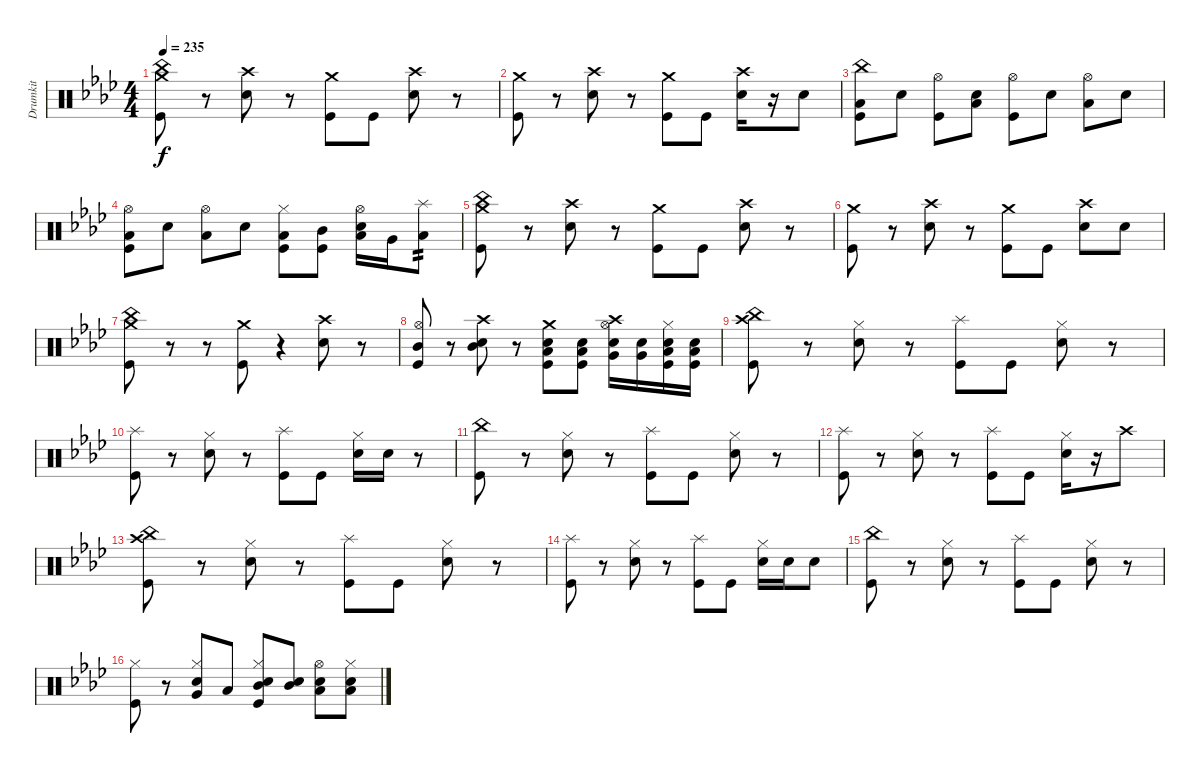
\track ("Drumkit" "Drumkit") {instrument percussion}
\staff {score}
\articulation defaults
\ts (4 4)
\tempo 235
\clef neutral
\ks ab
("Crash medium (hit)" "China (hit)" "Kick (hit)").8{dy f} r.8 ("Crash high (hit)" "Electric Snare (hit)").8 r.8 ("Crash medium (hit)" "Kick (hit)").8 "Kick (hit)".8 ("Crash high (hit)" "Electric Snare (hit)").8 r.8 |
("Crash medium (hit)" "Kick (hit)").8 r.8 ("Crash high (hit)" "Electric Snare (hit)").8 r.8 ("Crash medium (hit)" "Kick (hit)").8 "Kick (hit)".8 ("Crash high (hit)" "Electric Snare (hit)").16 r.16 "Electric Snare (hit)".8 |
("China (hit)" "Low Tom (hit)" "Kick (hit)").8 "Electric Snare (hit)".8 ("Hi-Hat (open)" "Kick (hit)").8 ("Low Tom (hit)" "Electric Snare (hit)").8 ("Hi-Hat (open)" "Kick (hit)").8 "Electric Snare (hit)".8 ("Hi-Hat (open)" "Low Tom (hit)").8 "Electric Snare (hit)".8 |
("Hi-Hat (open)" "Low Tom (hit)" "Kick (hit)").8 "Electric Snare (hit)".8 ("Hi-Hat (open)" "Low Tom (hit)").8 "Electric Snare (hit)".8 ("Hi-Hat (closed)" "Low Tom (hit)" "Kick (hit)").8 ("Mid Tom (hit)" "Kick (hit)").8 ("Hi-Hat (open)" "Low Tom (hit)" "Electric Snare (hit)").16 "Very Low Tom (hit)".16 ("Splash (hit)" "Low Floor Tom (hit)").8{tp 2} |
("Crash medium (hit)" "China (hit)" "Kick (hit)").8 r.8 ("Crash high (hit)" "Electric Snare (hit)").8 r.8 ("Crash medium (hit)" "Kick (hit)").8 "Kick (hit)".8 ("Crash high (hit)" "Electric Snare (hit)").8 r.8 |
("Crash medium (hit)" "Kick (hit)").8 r.8 ("Crash high (hit)" "Electric Snare (hit)").8 r.8 ("Crash medium (hit)" "Kick (hit)").8 "Kick (hit)".8 ("Crash high (hit)" "Electric Snare (hit)").8 "Electric Snare (hit)".8 |
("Crash medium (hit)" "China (hit)" "Kick (hit)").8 r.8 r.8 ("Crash medium (hit)" "Kick (hit)").8 r.4 ("Crash high (hit)" "Electric Snare (hit)").8 r.8 |
("Hi-Hat (open)" "Mid Tom (hit)" "Kick (hit)").8 r.8 ("Crash high (hit)" "Mid Tom (hit)" "Electric Snare (hit)").8 r.8 ("Crash medium (hit)" "Low Tom (hit)" "Electric Snare (hit)" "Kick (hit)").8 ("Low Tom (hit)" "Electric Snare (hit)" "Kick (hit)").8 ("Crash high (hit)" "Hi-Hat (open)" "Very Low Tom (hit)" "Electric Snare (hit)").16 ("Very Low Tom (hit)" "Electric Snare (hit)").16 ("Hi-Hat (closed)" "Low Floor Tom (hit)" "Electric Snare (hit)" "Kick (hit)").16 ("Low Floor Tom (hit)" "Electric Snare (hit)" "Kick (hit)").16 |
("Crash high (hit)" "China (hit)" "Kick (hit)").8 r.8 ("Hi-Hat (closed)" "Electric Snare (hit)").8 r.8 ("Splash (hit)" "Kick (hit)").8 "Kick (hit)".8 ("Hi-Hat (closed)" "Electric Snare (hit)").8 r.8 |
("Splash (hit)" "Kick (hit)").8 r.8 ("Hi-Hat (closed)" "Electric Snare (hit)").8 r.8 ("Splash (hit)" "Kick (hit)").8 "Kick (hit)".8 ("Hi-Hat (closed)" "Electric Snare (hit)").16 "Electric Snare (hit)".16 r.8 |
("China (hit)" "Kick (hit)").8 r.8 ("Hi-Hat (closed)" "Electric Snare (hit)").8 r.8 ("Splash (hit)" "Kick (hit)").8 "Kick (hit)".8 ("Hi-Hat (closed)" "Electric Snare (hit)").8 r.8 |
("Splash (hit)" "Kick (hit)").8 r.8 ("Hi-Hat (closed)" "Electric Snare (hit)").8 r.8 ("Splash (hit)" "Kick (hit)").8 "Kick (hit)".8 ("Hi-Hat (closed)" "Electric Snare (hit)").16 r.16 "Crash high (hit)".8 |
("Crash high (hit)" "China (hit)" "Kick (hit)").8 r.8 ("Hi-Hat (closed)" "Electric Snare (hit)").8 r.8 ("Splash (hit)" "Kick (hit)").8 "Kick (hit)".8 ("Hi-Hat (closed)" "Electric Snare (hit)").8 r.8 |
("Splash (hit)" "Kick (hit)").8 r.8 ("Hi-Hat (closed)" "Electric Snare (hit)").8 r.8 ("Splash (hit)" "Kick (hit)").8 "Kick (hit)".8 ("Hi-Hat (closed)" "Electric Snare (hit)").16 "Electric Snare (hit)".16 "Electric Snare (hit)".8 |
("China (hit)" "Kick (hit)").8 r.8 ("Hi-Hat (closed)" "Electric Snare (hit)").8 r.8 ("Splash (hit)" "Kick (hit)").8 "Kick (hit)".8 ("Hi-Hat (closed)" "Electric Snare (hit)").8 r.8 |
("Hi-Hat (closed)" "Kick (hit)").8 r.8 ("Hi-Hat (closed)" "Very Low Tom (hit)" "Electric Snare (hit)").8 "Low Tom (hit)".8 ("Hi-Hat (closed)" "Mid Tom (hit)" "Electric Snare (hit)" "Kick (hit)").8 ("Mid Tom (hit)" "Electric Snare (hit)").8 ("Hi-Hat (open)" "Low Tom (hit)" "Electric Snare (hit)").8 ("Hi-Hat (closed)" "Low Floor Tom (hit)" "Electric Snare (hit)").8
